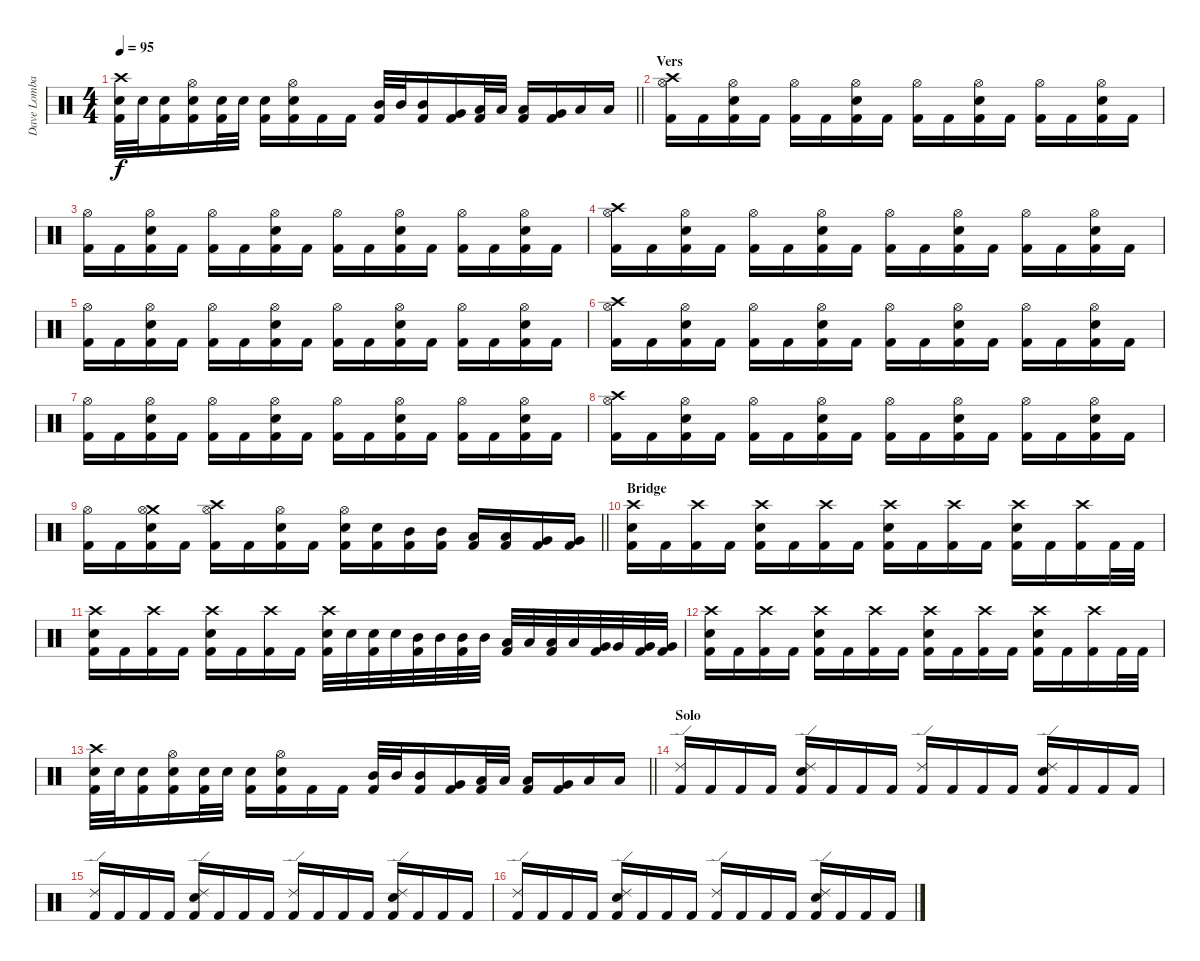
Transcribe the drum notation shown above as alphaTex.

\track ("Dave Lombardo" "Dave Lomba") {instrument percussion}
\staff {score}
\articulation defaults
\ts (4 4)
\tempo 95
\clef neutral
\barLineRight lightlight
\ks c
("Crash high (hit)" "Snare (hit) 2" "Kick (hit) 2").32{dy f} "Snare (hit) 2".32 ("Snare (hit) 2" "Kick (hit) 2").16 ("Hi-Hat (open)" "Snare (hit) 2" "Kick (hit) 2").16 ("Snare (hit) 2" "Kick (hit) 2").32 "Snare (hit) 2".32 ("Snare (hit) 2" "Kick (hit) 2").16 ("Hi-Hat (open)" "Snare (hit) 2" "Kick (hit) 2").16 "Kick (hit) 2".16 "Kick (hit) 2".16 ("Mid Tom (hit)" "Kick (hit) 2").32 "Mid Tom (hit)".32 ("Mid Tom (hit)" "Kick (hit) 2").16 ("Very Low Tom (hit)" "Kick (hit) 2").16 ("Low Tom (hit)" "Kick (hit) 2").32 "Low Tom (hit)".32 ("Low Tom (hit)" "Kick (hit) 2").16 ("Very Low Tom (hit)" "Kick (hit) 2").16 "Low Floor Tom (hit)".16 "Low Floor Tom (hit)".16 |
\section ("" "Vers")
("Crash high (hit)" "Hi-Hat (open)" "Kick (hit) 2").16 "Kick (hit) 2".16 ("Hi-Hat (open)" "Snare (hit) 2" "Kick (hit) 2").16 "Kick (hit) 2".16 ("Hi-Hat (open)" "Kick (hit) 2").16 "Kick (hit) 2".16 ("Hi-Hat (open)" "Snare (hit) 2" "Kick (hit) 2").16 "Kick (hit) 2".16 ("Hi-Hat (open)" "Kick (hit) 2").16 "Kick (hit) 2".16 ("Hi-Hat (open)" "Snare (hit) 2" "Kick (hit) 2").16 "Kick (hit) 2".16 ("Hi-Hat (open)" "Kick (hit) 2").16 "Kick (hit) 2".16 ("Hi-Hat (open)" "Snare (hit) 2" "Kick (hit) 2").16 "Kick (hit) 2".16 |
("Hi-Hat (open)" "Kick (hit) 2").16 "Kick (hit) 2".16 ("Hi-Hat (open)" "Snare (hit) 2" "Kick (hit) 2").16 "Kick (hit) 2".16 ("Hi-Hat (open)" "Kick (hit) 2").16 "Kick (hit) 2".16 ("Hi-Hat (open)" "Snare (hit) 2" "Kick (hit) 2").16 "Kick (hit) 2".16 ("Hi-Hat (open)" "Kick (hit) 2").16 "Kick (hit) 2".16 ("Hi-Hat (open)" "Snare (hit) 2" "Kick (hit) 2").16 "Kick (hit) 2".16 ("Hi-Hat (open)" "Kick (hit) 2").16 "Kick (hit) 2".16 ("Hi-Hat (open)" "Snare (hit) 2" "Kick (hit) 2").16 "Kick (hit) 2".16 |
("Crash high (hit)" "Hi-Hat (open)" "Kick (hit) 2").16 "Kick (hit) 2".16 ("Hi-Hat (open)" "Snare (hit) 2" "Kick (hit) 2").16 "Kick (hit) 2".16 ("Hi-Hat (open)" "Kick (hit) 2").16 "Kick (hit) 2".16 ("Hi-Hat (open)" "Snare (hit) 2" "Kick (hit) 2").16 "Kick (hit) 2".16 ("Hi-Hat (open)" "Kick (hit) 2").16 "Kick (hit) 2".16 ("Hi-Hat (open)" "Snare (hit) 2" "Kick (hit) 2").16 "Kick (hit) 2".16 ("Hi-Hat (open)" "Kick (hit) 2").16 "Kick (hit) 2".16 ("Hi-Hat (open)" "Snare (hit) 2" "Kick (hit) 2").16 "Kick (hit) 2".16 |
("Hi-Hat (open)" "Kick (hit) 2").16 "Kick (hit) 2".16 ("Hi-Hat (open)" "Snare (hit) 2" "Kick (hit) 2").16 "Kick (hit) 2".16 ("Hi-Hat (open)" "Kick (hit) 2").16 "Kick (hit) 2".16 ("Hi-Hat (open)" "Snare (hit) 2" "Kick (hit) 2").16 "Kick (hit) 2".16 ("Hi-Hat (open)" "Kick (hit) 2").16 "Kick (hit) 2".16 ("Hi-Hat (open)" "Snare (hit) 2" "Kick (hit) 2").16 "Kick (hit) 2".16 ("Hi-Hat (open)" "Kick (hit) 2").16 "Kick (hit) 2".16 ("Hi-Hat (open)" "Snare (hit) 2" "Kick (hit) 2").16 "Kick (hit) 2".16 |
("Crash high (hit)" "Hi-Hat (open)" "Kick (hit) 2").16 "Kick (hit) 2".16 ("Hi-Hat (open)" "Snare (hit) 2" "Kick (hit) 2").16 "Kick (hit) 2".16 ("Hi-Hat (open)" "Kick (hit) 2").16 "Kick (hit) 2".16 ("Hi-Hat (open)" "Snare (hit) 2" "Kick (hit) 2").16 "Kick (hit) 2".16 ("Hi-Hat (open)" "Kick (hit) 2").16 "Kick (hit) 2".16 ("Hi-Hat (open)" "Snare (hit) 2" "Kick (hit) 2").16 "Kick (hit) 2".16 ("Hi-Hat (open)" "Kick (hit) 2").16 "Kick (hit) 2".16 ("Hi-Hat (open)" "Snare (hit) 2" "Kick (hit) 2").16 "Kick (hit) 2".16 |
("Hi-Hat (open)" "Kick (hit) 2").16 "Kick (hit) 2".16 ("Hi-Hat (open)" "Snare (hit) 2" "Kick (hit) 2").16 "Kick (hit) 2".16 ("Hi-Hat (open)" "Kick (hit) 2").16 "Kick (hit) 2".16 ("Hi-Hat (open)" "Snare (hit) 2" "Kick (hit) 2").16 "Kick (hit) 2".16 ("Hi-Hat (open)" "Kick (hit) 2").16 "Kick (hit) 2".16 ("Hi-Hat (open)" "Snare (hit) 2" "Kick (hit) 2").16 "Kick (hit) 2".16 ("Hi-Hat (open)" "Kick (hit) 2").16 "Kick (hit) 2".16 ("Hi-Hat (open)" "Snare (hit) 2" "Kick (hit) 2").16 "Kick (hit) 2".16 |
("Crash high (hit)" "Hi-Hat (open)" "Kick (hit) 2").16 "Kick (hit) 2".16 ("Hi-Hat (open)" "Snare (hit) 2" "Kick (hit) 2").16 "Kick (hit) 2".16 ("Hi-Hat (open)" "Kick (hit) 2").16 "Kick (hit) 2".16 ("Hi-Hat (open)" "Snare (hit) 2" "Kick (hit) 2").16 "Kick (hit) 2".16 ("Hi-Hat (open)" "Kick (hit) 2").16 "Kick (hit) 2".16 ("Hi-Hat (open)" "Snare (hit) 2" "Kick (hit) 2").16 "Kick (hit) 2".16 ("Hi-Hat (open)" "Kick (hit) 2").16 "Kick (hit) 2".16 ("Hi-Hat (open)" "Snare (hit) 2" "Kick (hit) 2").16 "Kick (hit) 2".16 |
\barLineRight lightlight
("Hi-Hat (open)" "Kick (hit) 2").16 "Kick (hit) 2".16 ("Crash medium (hit)" "Hi-Hat (open)" "Snare (hit) 2" "Kick (hit) 2").16 "Kick (hit) 2".16 ("Crash high (hit)" "Hi-Hat (open)" "Kick (hit) 2").16 "Kick (hit) 2".16 ("Hi-Hat (open)" "Snare (hit) 2" "Kick (hit) 2").16 "Kick (hit) 2".16 ("Hi-Hat (open)" "Snare (hit) 2" "Kick (hit) 2").16 ("Snare (hit) 2" "Kick (hit) 2").16 ("Mid Tom (hit)" "Kick (hit) 2").16 ("Mid Tom (hit)" "Kick (hit) 2").16 ("Low Tom (hit)" "Kick (hit) 2").16 ("Low Tom (hit)" "Kick (hit) 2").16 ("Very Low Tom (hit)" "Kick (hit) 2").16 ("Very Low Tom (hit)" "Kick (hit) 2").16 |
\section ("" "Bridge")
("Crash high (hit)" "Snare (hit) 2" "Kick (hit) 2").16 "Kick (hit) 2".16 ("Crash high (hit)" "Kick (hit) 2").16 "Kick (hit) 2".16 ("Crash high (hit)" "Snare (hit) 2" "Kick (hit) 2").16 "Kick (hit) 2".16 ("Crash high (hit)" "Kick (hit) 2").16 "Kick (hit) 2".16 ("Crash high (hit)" "Snare (hit) 2" "Kick (hit) 2").16 "Kick (hit) 2".16 ("Crash high (hit)" "Kick (hit) 2").16 "Kick (hit) 2".16 ("Crash high (hit)" "Snare (hit) 2" "Kick (hit) 2").16 "Kick (hit) 2".16 ("Crash high (hit)" "Kick (hit) 2").16 "Kick (hit) 2".32 "Kick (hit) 2".32 |
("Crash high (hit)" "Snare (hit) 2" "Kick (hit) 2").16 "Kick (hit) 2".16 ("Crash high (hit)" "Kick (hit) 2").16 "Kick (hit) 2".16 ("Crash high (hit)" "Snare (hit) 2" "Kick (hit) 2").16 "Kick (hit) 2".16 ("Crash high (hit)" "Kick (hit) 2").16 "Kick (hit) 2".16 ("Crash high (hit)" "Snare (hit) 2" "Kick (hit) 2").32 "Snare (hit) 2".32 ("Snare (hit) 2" "Kick (hit) 2").32 "Snare (hit) 2".32 ("Mid Tom (hit)" "Kick (hit) 2").32 "Mid Tom (hit)".32 ("Mid Tom (hit)" "Kick (hit) 2").32 "Mid Tom (hit)".32 ("Low Tom (hit)" "Kick (hit) 2").32 "Low Tom (hit)".32 ("Low Tom (hit)" "Kick (hit) 2").32 "Low Tom (hit)".32 ("Very Low Tom (hit)" "Kick (hit) 2").32 "Very Low Tom (hit)".32 ("Very Low Tom (hit)" "Kick (hit) 2").32 ("Very Low Tom (hit)" "Kick (hit) 2").32 |
("Crash high (hit)" "Snare (hit) 2" "Kick (hit) 2").16 "Kick (hit) 2".16 ("Crash high (hit)" "Kick (hit) 2").16 "Kick (hit) 2".16 ("Crash high (hit)" "Snare (hit) 2" "Kick (hit) 2").16 "Kick (hit) 2".16 ("Crash high (hit)" "Kick (hit) 2").16 "Kick (hit) 2".16 ("Crash high (hit)" "Snare (hit) 2" "Kick (hit) 2").16 "Kick (hit) 2".16 ("Crash high (hit)" "Kick (hit) 2").16 "Kick (hit) 2".16 ("Crash high (hit)" "Snare (hit) 2" "Kick (hit) 2").16 "Kick (hit) 2".16 ("Crash high (hit)" "Kick (hit) 2").16 "Kick (hit) 2".32 "Kick (hit) 2".32 |
\barLineRight lightlight
("Crash high (hit)" "Snare (hit) 2" "Kick (hit) 2").32 "Snare (hit) 2".32 ("Snare (hit) 2" "Kick (hit) 2").16 ("Hi-Hat (open)" "Snare (hit) 2" "Kick (hit) 2").16 ("Snare (hit) 2" "Kick (hit) 2").32 "Snare (hit) 2".32 ("Snare (hit) 2" "Kick (hit) 2").16 ("Hi-Hat (open)" "Snare (hit) 2" "Kick (hit) 2").16 "Kick (hit) 2".16 "Kick (hit) 2".16 ("Mid Tom (hit)" "Kick (hit) 2").32 "Mid Tom (hit)".32 ("Mid Tom (hit)" "Kick (hit) 2").16 ("Very Low Tom (hit)" "Kick (hit) 2").16 ("Low Tom (hit)" "Kick (hit) 2").32 "Low Tom (hit)".32 ("Low Tom (hit)" "Kick (hit) 2").16 ("Very Low Tom (hit)" "Kick (hit) 2").16 "Low Floor Tom (hit)".16 "Low Floor Tom (hit)".16 |
\section ("" "Solo")
("Ride (edge) 2" "Kick (hit) 2").16 "Kick (hit) 2".16 "Kick (hit) 2".16 "Kick (hit) 2".16 ("Ride (edge) 2" "Snare (hit) 2" "Kick (hit) 2").16 "Kick (hit) 2".16 "Kick (hit) 2".16 "Kick (hit) 2".16 ("Ride (edge) 2" "Kick (hit) 2").16 "Kick (hit) 2".16 "Kick (hit) 2".16 "Kick (hit) 2".16 ("Ride (edge) 2" "Snare (hit) 2" "Kick (hit) 2").16 "Kick (hit) 2".16 "Kick (hit) 2".16 "Kick (hit) 2".16 |
("Ride (edge) 2" "Kick (hit) 2").16 "Kick (hit) 2".16 "Kick (hit) 2".16 "Kick (hit) 2".16 ("Ride (edge) 2" "Snare (hit) 2" "Kick (hit) 2").16 "Kick (hit) 2".16 "Kick (hit) 2".16 "Kick (hit) 2".16 ("Ride (edge) 2" "Kick (hit) 2").16 "Kick (hit) 2".16 "Kick (hit) 2".16 "Kick (hit) 2".16 ("Ride (edge) 2" "Snare (hit) 2" "Kick (hit) 2").16 "Kick (hit) 2".16 "Kick (hit) 2".16 "Kick (hit) 2".16 |
("Ride (edge) 2" "Kick (hit) 2").16 "Kick (hit) 2".16 "Kick (hit) 2".16 "Kick (hit) 2".16 ("Ride (edge) 2" "Snare (hit) 2" "Kick (hit) 2").16 "Kick (hit) 2".16 "Kick (hit) 2".16 "Kick (hit) 2".16 ("Ride (edge) 2" "Kick (hit) 2").16 "Kick (hit) 2".16 "Kick (hit) 2".16 "Kick (hit) 2".16 ("Ride (edge) 2" "Snare (hit) 2" "Kick (hit) 2").16 "Kick (hit) 2".16 "Kick (hit) 2".16 "Kick (hit) 2".16
